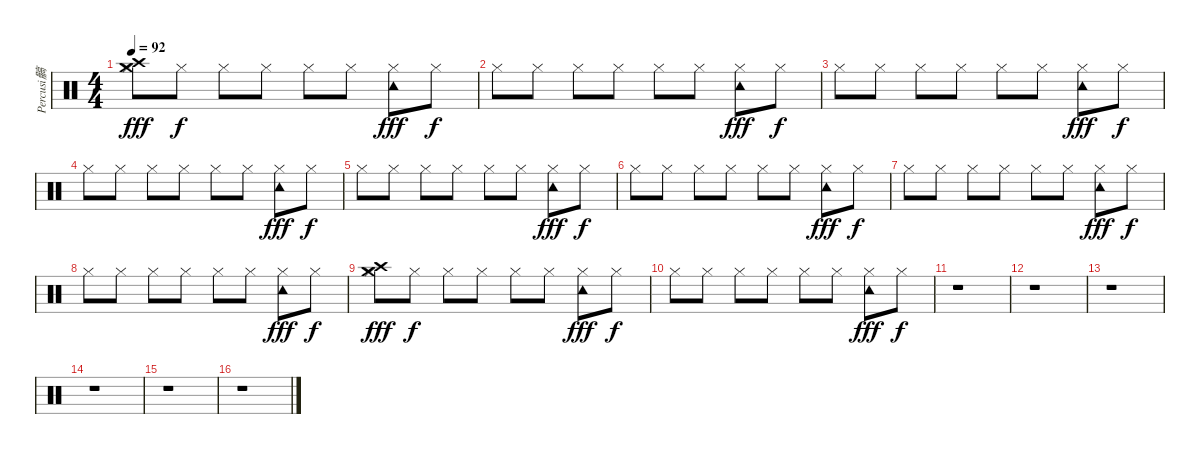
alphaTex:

\track ("Percusi髇" "Percusi髇") {instrument percussion}
\staff {score}
\articulation defaults
\ts (4 4)
\tempo 92
\clef neutral
\ks c
("Crash high (hit)" "Hi-Hat (closed)" "Crash medium (hit)").8{dy fff} "Hi-Hat (closed)".8{dy f} "Hi-Hat (closed)".8 "Hi-Hat (closed)".8 "Hi-Hat (closed)".8 "Hi-Hat (closed)".8 ("Hi-Hat (closed)" "Tambourine (hit)").8{dy fff} "Hi-Hat (closed)".8{dy f} |
"Hi-Hat (closed)".8 "Hi-Hat (closed)".8 "Hi-Hat (closed)".8 "Hi-Hat (closed)".8 "Hi-Hat (closed)".8 "Hi-Hat (closed)".8 ("Hi-Hat (closed)" "Tambourine (hit)").8{dy fff} "Hi-Hat (closed)".8{dy f} |
"Hi-Hat (closed)".8 "Hi-Hat (closed)".8 "Hi-Hat (closed)".8 "Hi-Hat (closed)".8 "Hi-Hat (closed)".8 "Hi-Hat (closed)".8 ("Hi-Hat (closed)" "Tambourine (hit)").8{dy fff} "Hi-Hat (closed)".8{dy f} |
"Hi-Hat (closed)".8 "Hi-Hat (closed)".8 "Hi-Hat (closed)".8 "Hi-Hat (closed)".8 "Hi-Hat (closed)".8 "Hi-Hat (closed)".8 ("Hi-Hat (closed)" "Tambourine (hit)").8{dy fff} "Hi-Hat (closed)".8{dy f} |
"Hi-Hat (closed)".8 "Hi-Hat (closed)".8 "Hi-Hat (closed)".8 "Hi-Hat (closed)".8 "Hi-Hat (closed)".8 "Hi-Hat (closed)".8 ("Hi-Hat (closed)" "Tambourine (hit)").8{dy fff} "Hi-Hat (closed)".8{dy f} |
"Hi-Hat (closed)".8 "Hi-Hat (closed)".8 "Hi-Hat (closed)".8 "Hi-Hat (closed)".8 "Hi-Hat (closed)".8 "Hi-Hat (closed)".8 ("Hi-Hat (closed)" "Tambourine (hit)").8{dy fff} "Hi-Hat (closed)".8{dy f} |
"Hi-Hat (closed)".8 "Hi-Hat (closed)".8 "Hi-Hat (closed)".8 "Hi-Hat (closed)".8 "Hi-Hat (closed)".8 "Hi-Hat (closed)".8 ("Hi-Hat (closed)" "Tambourine (hit)").8{dy fff} "Hi-Hat (closed)".8{dy f} |
"Hi-Hat (closed)".8 "Hi-Hat (closed)".8 "Hi-Hat (closed)".8 "Hi-Hat (closed)".8 "Hi-Hat (closed)".8 "Hi-Hat (closed)".8 ("Hi-Hat (closed)" "Tambourine (hit)").8{dy fff} "Hi-Hat (closed)".8{dy f} |
("Crash high (hit)" "Hi-Hat (closed)" "Crash medium (hit)").8{dy fff} "Hi-Hat (closed)".8{dy f} "Hi-Hat (closed)".8 "Hi-Hat (closed)".8 "Hi-Hat (closed)".8 "Hi-Hat (closed)".8 ("Hi-Hat (closed)" "Tambourine (hit)").8{dy fff} "Hi-Hat (closed)".8{dy f} |
"Hi-Hat (closed)".8 "Hi-Hat (closed)".8 "Hi-Hat (closed)".8 "Hi-Hat (closed)".8 "Hi-Hat (closed)".8 "Hi-Hat (closed)".8 ("Hi-Hat (closed)" "Tambourine (hit)").8{dy fff} "Hi-Hat (closed)".8{dy f} |
r.1 |
r.1 |
r.1 |
r.1 |
r.1 |
r.1
